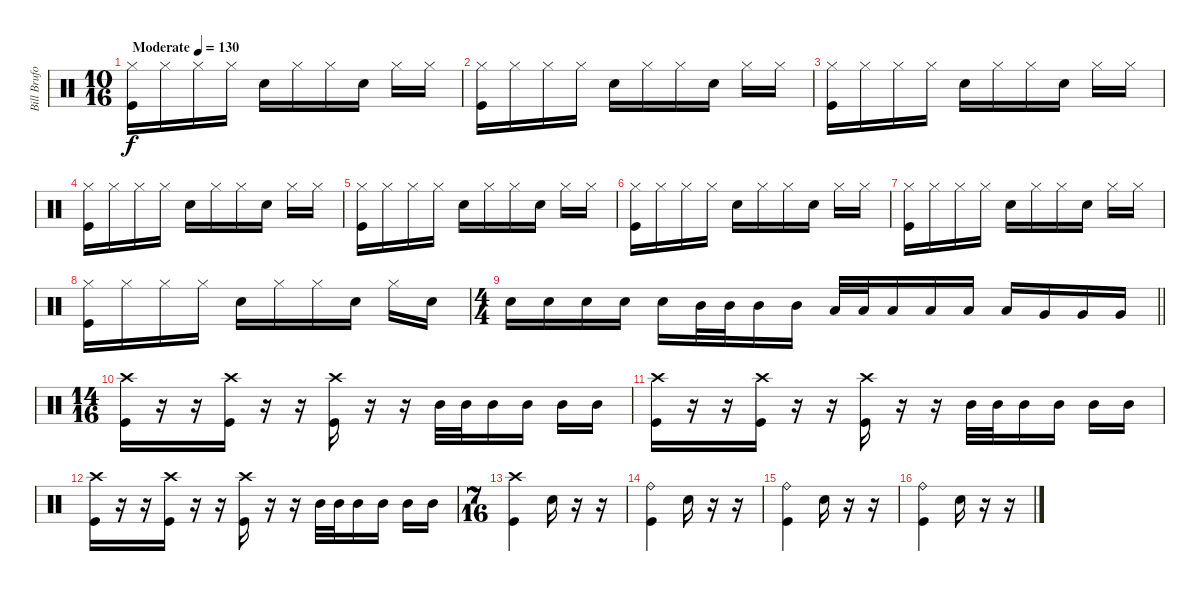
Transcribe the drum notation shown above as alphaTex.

\track ("Bill Bruford" "Bill Brufo") {instrument percussion}
\staff {score}
\articulation defaults
\ts (10 16)
\tempo (130 "Moderate")
\clef neutral
\ks c
("Hi-Hat (closed)" "Kick (hit)").16{dy f volume 2} "Hi-Hat (closed)".16{volume 10} "Hi-Hat (closed)".16 "Hi-Hat (closed)".16 "Snare (hit) 2".16 "Hi-Hat (closed)".16 "Hi-Hat (closed)".16 "Snare (hit) 2".16 "Hi-Hat (closed)".16 "Hi-Hat (closed)".16 |
("Hi-Hat (closed)" "Kick (hit)").16 "Hi-Hat (closed)".16 "Hi-Hat (closed)".16 "Hi-Hat (closed)".16 "Snare (hit) 2".16 "Hi-Hat (closed)".16 "Hi-Hat (closed)".16 "Snare (hit) 2".16 "Hi-Hat (closed)".16 "Hi-Hat (closed)".16 |
("Hi-Hat (closed)" "Kick (hit)").16 "Hi-Hat (closed)".16 "Hi-Hat (closed)".16 "Hi-Hat (closed)".16 "Snare (hit) 2".16 "Hi-Hat (closed)".16 "Hi-Hat (closed)".16 "Snare (hit) 2".16 "Hi-Hat (closed)".16 "Hi-Hat (closed)".16 |
("Hi-Hat (closed)" "Kick (hit)").16 "Hi-Hat (closed)".16 "Hi-Hat (closed)".16 "Hi-Hat (closed)".16 "Snare (hit) 2".16 "Hi-Hat (closed)".16 "Hi-Hat (closed)".16 "Snare (hit) 2".16 "Hi-Hat (closed)".16 "Hi-Hat (closed)".16 |
("Hi-Hat (closed)" "Kick (hit)").16 "Hi-Hat (closed)".16 "Hi-Hat (closed)".16 "Hi-Hat (closed)".16 "Snare (hit) 2".16 "Hi-Hat (closed)".16 "Hi-Hat (closed)".16 "Snare (hit) 2".16 "Hi-Hat (closed)".16 "Hi-Hat (closed)".16 |
("Hi-Hat (closed)" "Kick (hit)").16 "Hi-Hat (closed)".16 "Hi-Hat (closed)".16 "Hi-Hat (closed)".16 "Snare (hit) 2".16 "Hi-Hat (closed)".16 "Hi-Hat (closed)".16 "Snare (hit) 2".16 "Hi-Hat (closed)".16 "Hi-Hat (closed)".16 |
("Hi-Hat (closed)" "Kick (hit)").16 "Hi-Hat (closed)".16 "Hi-Hat (closed)".16 "Hi-Hat (closed)".16 "Snare (hit) 2".16 "Hi-Hat (closed)".16 "Hi-Hat (closed)".16 "Snare (hit) 2".16 "Hi-Hat (closed)".16 "Hi-Hat (closed)".16 |
("Hi-Hat (closed)" "Kick (hit)").16 "Hi-Hat (closed)".16 "Hi-Hat (closed)".16 "Hi-Hat (closed)".16 "Snare (hit) 2".16 "Hi-Hat (closed)".16 "Hi-Hat (closed)".16 "Snare (hit) 2".16 "Hi-Hat (closed)".16 "Snare (hit) 2".16 |
\ts (4 4)
\barLineRight lightlight "Snare (hit) 2".16 "Snare (hit) 2".16 "Snare (hit) 2".16 "Snare (hit) 2".16 "Snare (hit) 2".16 "Mid Tom (hit)".32 "Mid Tom (hit)".32 "Mid Tom (hit)".16 "Mid Tom (hit)".16 "Low Tom (hit)".32 "Low Tom (hit)".32 "Low Tom (hit)".16 "Low Tom (hit)".16 "Low Tom (hit)".16 "Low Tom (hit)".16 "Very Low Tom (hit)".16 "Very Low Tom (hit)".16 "Very Low Tom (hit)".16
|
\ts (14 16)
("Crash high (hit)" "Kick (hit)").16{volume 8} r.16 r.16 ("Crash high (hit)" "Kick (hit)").16 r.16 r.16 ("Crash high (hit)" "Kick (hit)").16 r.16 r.16 "Mid Tom (hit)".32 "Mid Tom (hit)".32 "Mid Tom (hit)".16 "Mid Tom (hit)".16 "Mid Tom (hit)".16 "Mid Tom (hit)".16 |
("Crash high (hit)" "Kick (hit)").16 r.16 r.16 ("Crash high (hit)" "Kick (hit)").16 r.16 r.16 ("Crash high (hit)" "Kick (hit)").16 r.16 r.16 "Mid Tom (hit)".32 "Mid Tom (hit)".32 "Mid Tom (hit)".16 "Mid Tom (hit)".16 "Mid Tom (hit)".16 "Mid Tom (hit)".16 |
("Crash high (hit)" "Kick (hit)").16 r.16 r.16 ("Crash high (hit)" "Kick (hit)").16 r.16 r.16 ("Crash high (hit)" "Kick (hit)").16 r.16 r.16 "Mid Tom (hit)".32 "Mid Tom (hit)".32 "Mid Tom (hit)".16 "Mid Tom (hit)".16 "Mid Tom (hit)".16 "Mid Tom (hit)".16 |
\ts (7 16)
("Crash high (hit)" "Kick (hit)").4 "Snare (hit) 2".16 r.16 r.16 |
("Ride (bell)" "Kick (hit)").4 "Snare (hit) 2".16 r.16 r.16 |
("Ride (bell)" "Kick (hit)").4 "Snare (hit) 2".16 r.16 r.16 |
("Ride (bell)" "Kick (hit)").4 "Snare (hit) 2".16 r.16 r.16
